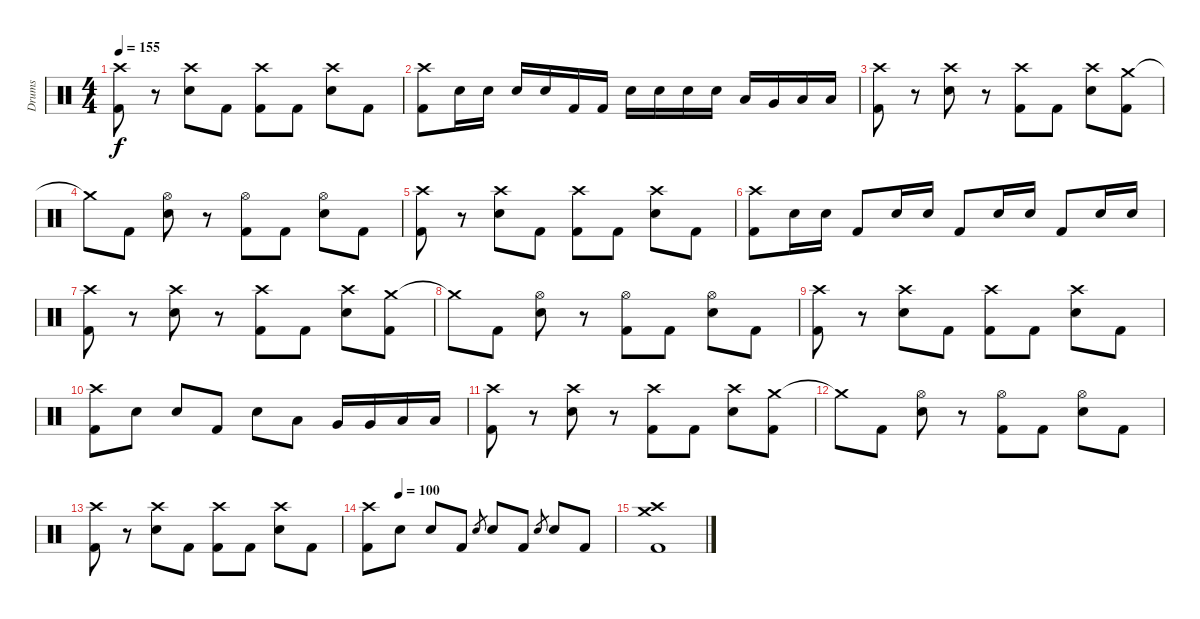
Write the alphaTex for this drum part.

\track ("Drums" "Drums") {instrument percussion}
\staff {score}
\articulation defaults
\ts (4 4)
\tempo 155
\clef neutral
\ks c
("Crash high (hit)" "Kick (hit) 2").8{dy f} r.8 ("Crash high (hit)" "Electric Snare (hit)").8 "Kick (hit) 2".8 ("Crash high (hit)" "Kick (hit) 2").8 "Kick (hit) 2".8 ("Crash high (hit)" "Electric Snare (hit)").8 "Kick (hit) 2".8 |
("Crash high (hit)" "Kick (hit) 2").8 "Electric Snare (hit)".16 "Electric Snare (hit)".16 "Electric Snare (hit)".16 "Electric Snare (hit)".16 "Kick (hit) 2".16 "Kick (hit) 2".16 "Electric Snare (hit)".16 "Electric Snare (hit)".16 "Electric Snare (hit)".16 "Electric Snare (hit)".16 "Low Tom (hit)".16 "Very Low Tom (hit)".16 "Low Floor Tom (hit)".16 "Low Floor Tom (hit)".16 |
("Crash high (hit)" "Kick (hit) 2").8 r.8 ("Crash high (hit)" "Electric Snare (hit)").8 r.8 ("Crash high (hit)" "Kick (hit) 2").8 "Kick (hit) 2".8 ("Crash high (hit)" "Electric Snare (hit)").8 ("Crash medium (hit)" "Kick (hit) 2").8 |
"Crash medium (hit)"{t}.8 "Kick (hit) 2".8 ("Hi-Hat (open)" "Electric Snare (hit)").8 r.8 ("Hi-Hat (open)" "Kick (hit) 2").8 "Kick (hit) 2".8 ("Hi-Hat (open)" "Electric Snare (hit)").8 "Kick (hit) 2".8 |
("Crash high (hit)" "Kick (hit) 2").8 r.8 ("Crash high (hit)" "Electric Snare (hit)").8 "Kick (hit) 2".8 ("Crash high (hit)" "Kick (hit) 2").8 "Kick (hit) 2".8 ("Crash high (hit)" "Electric Snare (hit)").8 "Kick (hit) 2".8 |
("Crash high (hit)" "Kick (hit) 2").8 "Electric Snare (hit)".16 "Electric Snare (hit)".16 "Kick (hit) 2".8 "Electric Snare (hit)".16 "Electric Snare (hit)".16 "Kick (hit) 2".8 "Electric Snare (hit)".16 "Electric Snare (hit)".16 "Kick (hit) 2".8 "Electric Snare (hit)".16 "Electric Snare (hit)".16 |
("Crash high (hit)" "Kick (hit) 2").8 r.8 ("Crash high (hit)" "Electric Snare (hit)").8 r.8 ("Crash high (hit)" "Kick (hit) 2").8 "Kick (hit) 2".8 ("Crash high (hit)" "Electric Snare (hit)").8 ("Crash medium (hit)" "Kick (hit) 2").8 |
"Crash medium (hit)"{t}.8 "Kick (hit) 2".8 ("Hi-Hat (open)" "Electric Snare (hit)").8 r.8 ("Hi-Hat (open)" "Kick (hit) 2").8 "Kick (hit) 2".8 ("Hi-Hat (open)" "Electric Snare (hit)").8 "Kick (hit) 2".8 |
("Crash high (hit)" "Kick (hit) 2").8 r.8 ("Crash high (hit)" "Electric Snare (hit)").8 "Kick (hit) 2".8 ("Crash high (hit)" "Kick (hit) 2").8 "Kick (hit) 2".8 ("Crash high (hit)" "Electric Snare (hit)").8 "Kick (hit) 2".8 |
("Crash high (hit)" "Kick (hit) 2").8 "Electric Snare (hit)".8 "Electric Snare (hit)".8 "Kick (hit) 2".8 "Electric Snare (hit)".8 "Low Tom (hit)".8 "Very Low Tom (hit)".16 "Very Low Tom (hit)".16 "Low Floor Tom (hit)".16 "Low Floor Tom (hit)".16 |
("Crash high (hit)" "Kick (hit) 2").8 r.8 ("Crash high (hit)" "Electric Snare (hit)").8 r.8 ("Crash high (hit)" "Kick (hit) 2").8 "Kick (hit) 2".8 ("Crash high (hit)" "Electric Snare (hit)").8 ("Crash medium (hit)" "Kick (hit) 2").8 |
"Crash medium (hit)"{t}.8 "Kick (hit) 2".8 ("Hi-Hat (open)" "Electric Snare (hit)").8 r.8 ("Hi-Hat (open)" "Kick (hit) 2").8 "Kick (hit) 2".8 ("Hi-Hat (open)" "Electric Snare (hit)").8 "Kick (hit) 2".8 |
("Crash high (hit)" "Kick (hit) 2").8 r.8 ("Crash high (hit)" "Electric Snare (hit)").8 "Kick (hit) 2".8 ("Crash high (hit)" "Kick (hit) 2").8 "Kick (hit) 2".8 ("Crash high (hit)" "Electric Snare (hit)").8 "Kick (hit) 2".8 |
\tempo (100 0.125)
("Crash high (hit)" "Kick (hit) 2").8 "Electric Snare (hit)".8 "Electric Snare (hit)".8 "Kick (hit) 2".8 "Electric Snare (hit)".8{gr} "Electric Snare (hit)".8 "Kick (hit) 2".8 "Electric Snare (hit)".8{gr} "Electric Snare (hit)".8 "Kick (hit) 2".8 |
("Crash medium (hit)" "Crash high (hit)" "Kick (hit) 2").1
